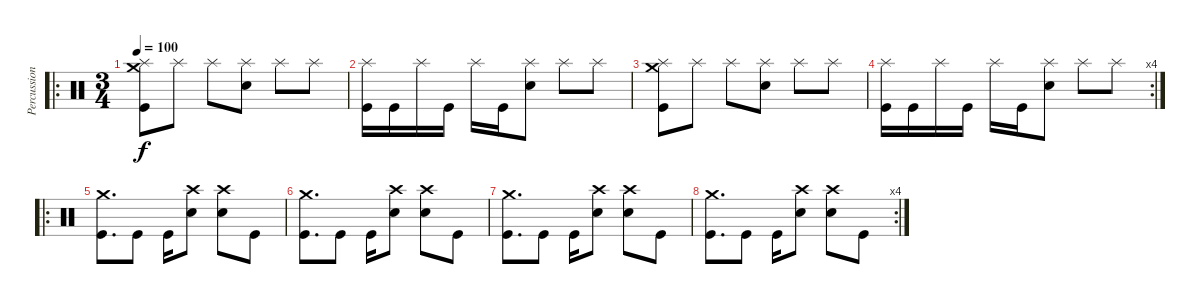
\track ("Percussion" "Percussion") {instrument percussion}
\staff {score}
\articulation defaults
\ro
\ts (3 4)
\tempo 100
\clef neutral
\ks c
("Crash medium (hit)" "Splash (hit)" "Kick (hit)").8{dy f} "Splash (hit)".8 "Splash (hit)".8 ("Splash (hit)" "Electric Snare (hit)").8 "Splash (hit)".8 "Splash (hit)".8 |
("Splash (hit)" "Kick (hit)").16 "Kick (hit)".16 "Splash (hit)".16 "Kick (hit)".16 "Splash (hit)".16 "Kick (hit)".16 ("Splash (hit)" "Electric Snare (hit)").8 "Splash (hit)".8 "Splash (hit)".8 |
("Crash medium (hit)" "Splash (hit)" "Kick (hit)").8 "Splash (hit)".8 "Splash (hit)".8 ("Splash (hit)" "Electric Snare (hit)").8 "Splash (hit)".8 "Splash (hit)".8 |
\rc 4
("Splash (hit)" "Kick (hit)").16 "Kick (hit)".16 "Splash (hit)".16 "Kick (hit)".16 "Splash (hit)".16 "Kick (hit)".16 ("Splash (hit)" "Electric Snare (hit)").8 "Splash (hit)".8 "Splash (hit)".8 |
\ro
("Crash medium (hit)" "Kick (hit)").8{d} "Kick (hit)".8 "Kick (hit)".16 ("Crash high (hit)" "Electric Snare (hit)").8 ("Crash high (hit)" "Electric Snare (hit)").8 "Kick (hit)".8 |
("Crash medium (hit)" "Kick (hit)").8{d} "Kick (hit)".8 "Kick (hit)".16 ("Crash high (hit)" "Electric Snare (hit)").8 ("Crash high (hit)" "Electric Snare (hit)").8 "Kick (hit)".8 |
("Crash medium (hit)" "Kick (hit)").8{d} "Kick (hit)".8 "Kick (hit)".16 ("Crash high (hit)" "Electric Snare (hit)").8 ("Crash high (hit)" "Electric Snare (hit)").8 "Kick (hit)".8 |
\rc 4
("Crash medium (hit)" "Kick (hit)").8{d} "Kick (hit)".8 "Kick (hit)".16 ("Crash high (hit)" "Electric Snare (hit)").8 ("Crash high (hit)" "Electric Snare (hit)").8 "Kick (hit)".8
